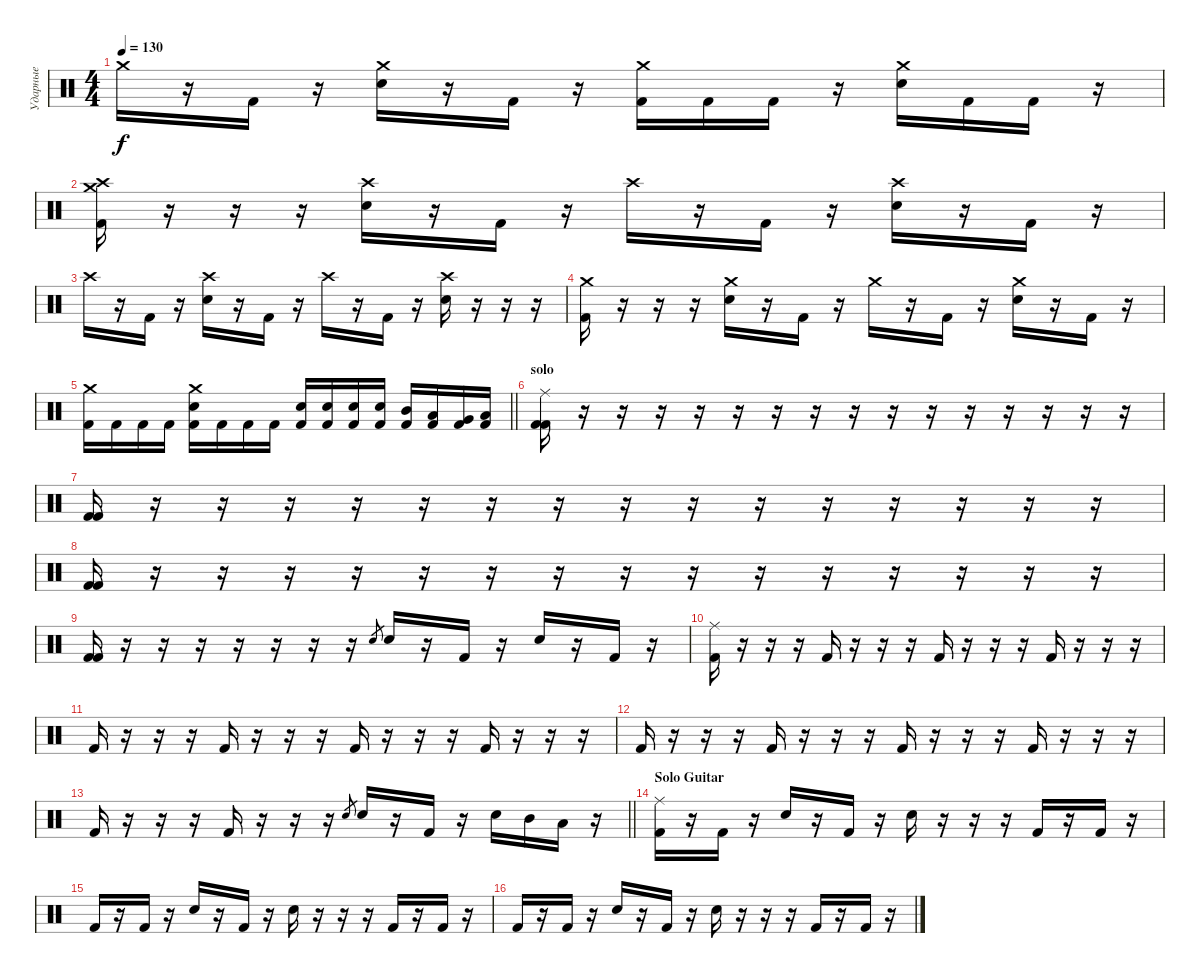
\track ("Ударные" "Ударные") {instrument percussion}
\staff {score}
\articulation defaults
\ts (4 4)
\tempo 130
\clef neutral
\ks c "Crash medium (hit)".16{dy f}
r.16 "Kick (hit) 2".16 r.16 ("Crash medium (hit)" "Snare (hit) 2").16 r.16 "Kick (hit) 2".16 r.16 ("Crash medium (hit)" "Kick (hit) 2").16 "Kick (hit) 2".16 "Kick (hit) 2".16 r.16 ("Crash medium (hit)" "Snare (hit) 2").16 "Kick (hit) 2".16 "Kick (hit) 2".16 r.16 |
("Crash high (hit)" "Crash medium (hit)" "Kick (hit) 2").16 r.16 r.16 r.16 ("Crash high (hit)" "Snare (hit) 2").16 r.16 "Kick (hit) 2".16 r.16 "Crash high (hit)".16 r.16 "Kick (hit) 2".16 r.16 ("Crash high (hit)" "Snare (hit) 2").16 r.16 "Kick (hit) 2".16 r.16 |
"Crash high (hit)".16 r.16 "Kick (hit) 2".16 r.16 ("Crash high (hit)" "Snare (hit) 2").16 r.16 "Kick (hit) 2".16 r.16 "Crash high (hit)".16 r.16 "Kick (hit) 2".16 r.16 ("Crash high (hit)" "Snare (hit) 2").16 r.16 r.16 r.16 |
("Crash medium (hit)" "Kick (hit) 2").16 r.16 r.16 r.16 ("Crash medium (hit)" "Snare (hit) 2").16 r.16 "Kick (hit) 2".16 r.16 "Crash medium (hit)".16 r.16 "Kick (hit) 2".16 r.16 ("Crash medium (hit)" "Snare (hit) 2").16 r.16 "Kick (hit) 2".16 r.16 |
\barLineRight lightlight
("Crash medium (hit)" "Kick (hit) 2").16 "Kick (hit) 2".16 "Kick (hit) 2".16 "Kick (hit) 2".16 ("Crash medium (hit)" "Snare (hit) 2" "Kick (hit) 2").16 "Kick (hit) 2".16 "Kick (hit) 2".16 "Kick (hit) 2".16 ("Snare (hit) 2" "Kick (hit) 2").16 ("Snare (hit) 2" "Kick (hit) 2").16 ("Snare (hit) 2" "Kick (hit) 2").16 ("Snare (hit) 2" "Kick (hit) 2").16 ("Mid Tom (hit)" "Kick (hit) 2").16 ("Low Tom (hit)" "Kick (hit) 2").16 ("Very Low Tom (hit)" "Kick (hit) 2").16 ("Low Floor Tom (hit)" "Kick (hit) 2").16 |
\section ("" "solo")
("Ride (middle)" "Kick (hit) 2" "Kick (hit) 2").16 r.16 r.16 r.16 r.16 r.16 r.16 r.16 r.16 r.16 r.16 r.16 r.16 r.16 r.16 r.16 |
("Kick (hit) 2" "Kick (hit) 2").16 r.16 r.16 r.16 r.16 r.16 r.16 r.16 r.16 r.16 r.16 r.16 r.16 r.16 r.16 r.16 |
("Kick (hit) 2" "Kick (hit) 2").16 r.16 r.16 r.16 r.16 r.16 r.16 r.16 r.16 r.16 r.16 r.16 r.16 r.16 r.16 r.16 |
("Kick (hit) 2" "Kick (hit) 2").16 r.16 r.16 r.16 r.16 r.16 r.16 r.16 "Snare (hit) 2".8{gr} "Snare (hit) 2".16 r.16 "Kick (hit) 2".16 r.16 "Snare (hit) 2".16 r.16 "Kick (hit) 2".16 r.16 |
("Ride (middle)" "Kick (hit) 2").16 r.16 r.16 r.16 "Kick (hit) 2".16 r.16 r.16 r.16 "Kick (hit) 2".16 r.16 r.16 r.16 "Kick (hit) 2".16 r.16 r.16 r.16 |
"Kick (hit) 2".16 r.16 r.16 r.16 "Kick (hit) 2".16 r.16 r.16 r.16 "Kick (hit) 2".16 r.16 r.16 r.16 "Kick (hit) 2".16 r.16 r.16 r.16 |
"Kick (hit) 2".16 r.16 r.16 r.16 "Kick (hit) 2".16 r.16 r.16 r.16 "Kick (hit) 2".16 r.16 r.16 r.16 "Kick (hit) 2".16 r.16 r.16 r.16 |
\barLineRight lightlight "Kick (hit) 2".16
r.16 r.16 r.16 "Kick (hit) 2".16 r.16 r.16 r.16 "Snare (hit) 2".8{gr} "Snare (hit) 2".16 r.16 "Kick (hit) 2".16 r.16 "Snare (hit) 2".16 "Mid Tom (hit)".16 "Low Tom (hit)".16 r.16 |
\section ("" "Solo Guitar")
("Ride (middle)" "Kick (hit) 2").16 r.16 "Kick (hit) 2".16 r.16 "Snare (hit) 2".16 r.16 "Kick (hit) 2".16 r.16 "Snare (hit) 2".16 r.16 r.16 r.16 "Kick (hit) 2".16 r.16 "Kick (hit) 2".16 r.16 |
"Kick (hit) 2".16 r.16 "Kick (hit) 2".16 r.16 "Snare (hit) 2".16 r.16 "Kick (hit) 2".16 r.16 "Snare (hit) 2".16 r.16 r.16 r.16 "Kick (hit) 2".16 r.16 "Kick (hit) 2".16 r.16 |
"Kick (hit) 2".16 r.16 "Kick (hit) 2".16 r.16 "Snare (hit) 2".16 r.16 "Kick (hit) 2".16 r.16 "Snare (hit) 2".16 r.16 r.16 r.16 "Kick (hit) 2".16 r.16 "Kick (hit) 2".16 r.16
